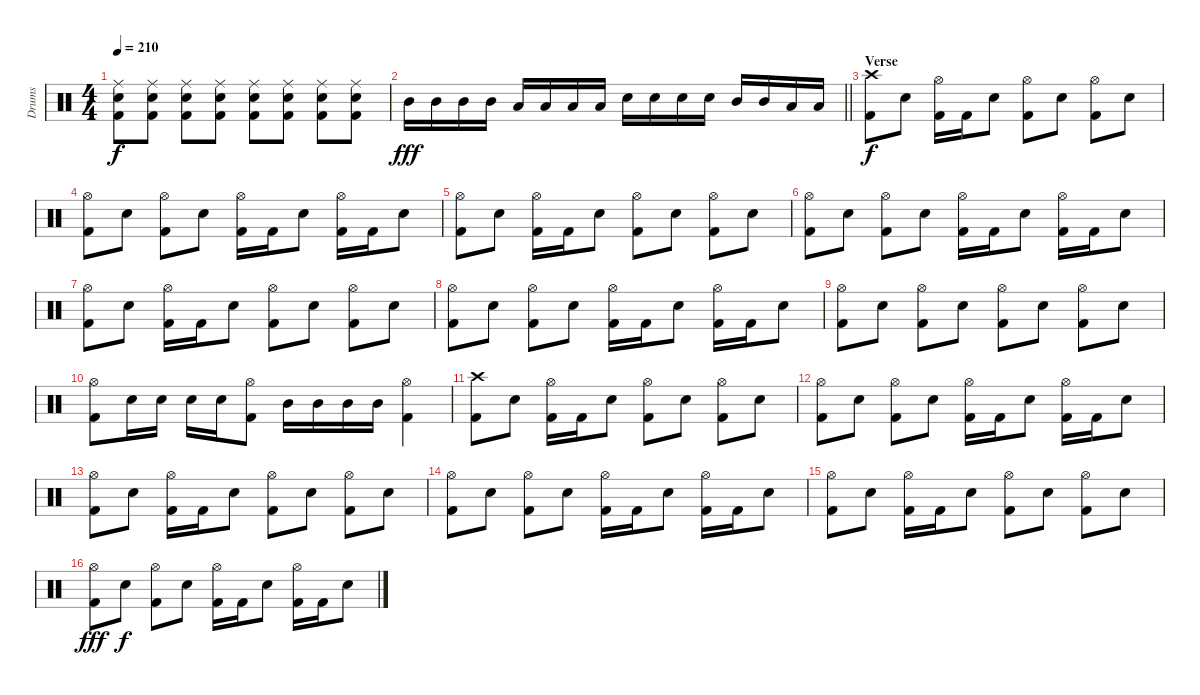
\track ("Drums" "Drums") {instrument percussion}
\staff {score}
\articulation defaults
\ts (4 4)
\tempo 210
\clef neutral
\ks c
("Ride (middle)" "Snare (hit) 2" "Kick (hit) 2").8{dy f} ("Ride (middle)" "Snare (hit) 2" "Kick (hit) 2").8 ("Ride (middle)" "Snare (hit) 2" "Kick (hit) 2").8 ("Ride (middle)" "Snare (hit) 2" "Kick (hit) 2").8 ("Ride (middle)" "Snare (hit) 2" "Kick (hit) 2").8 ("Ride (middle)" "Snare (hit) 2" "Kick (hit) 2").8 ("Ride (middle)" "Snare (hit) 2" "Kick (hit) 2").8 ("Ride (middle)" "Snare (hit) 2" "Kick (hit) 2").8 |
\barLineRight lightlight "Mid Tom (hit)".16{dy fff} "Mid Tom (hit)".16 "Mid Tom (hit)".16 "Mid Tom (hit)".16 "Low Tom (hit)".16 "Low Tom (hit)".16 "Low Tom (hit)".16 "Low Tom (hit)".16 "Snare (hit) 2".16 "Snare (hit) 2".16 "Snare (hit) 2".16 "Snare (hit) 2".16 "Mid Tom (hit)".16 "Mid Tom (hit)".16 "Low Tom (hit)".16 "Low Tom (hit)".16
|
\section ("" "Verse")
("Crash high (hit)" "Kick (hit) 2").8{dy f} "Snare (hit) 2".8 ("Hi-Hat (open)" "Kick (hit) 2").16 "Kick (hit) 2".16 "Snare (hit) 2".8 ("Hi-Hat (open)" "Kick (hit) 2").8 "Snare (hit) 2".8 ("Hi-Hat (open)" "Kick (hit) 2").8 "Snare (hit) 2".8 |
("Hi-Hat (open)" "Kick (hit) 2").8 "Snare (hit) 2".8 ("Hi-Hat (open)" "Kick (hit) 2").8 "Snare (hit) 2".8 ("Hi-Hat (open)" "Kick (hit) 2").16 "Kick (hit) 2".16 "Snare (hit) 2".8 ("Hi-Hat (open)" "Kick (hit) 2").16 "Kick (hit) 2".16 "Snare (hit) 2".8 |
("Hi-Hat (open)" "Kick (hit) 2").8 "Snare (hit) 2".8 ("Hi-Hat (open)" "Kick (hit) 2").16 "Kick (hit) 2".16 "Snare (hit) 2".8 ("Hi-Hat (open)" "Kick (hit) 2").8 "Snare (hit) 2".8 ("Hi-Hat (open)" "Kick (hit) 2").8 "Snare (hit) 2".8 |
("Hi-Hat (open)" "Kick (hit) 2").8 "Snare (hit) 2".8 ("Hi-Hat (open)" "Kick (hit) 2").8 "Snare (hit) 2".8 ("Hi-Hat (open)" "Kick (hit) 2").16 "Kick (hit) 2".16 "Snare (hit) 2".8 ("Hi-Hat (open)" "Kick (hit) 2").16 "Kick (hit) 2".16 "Snare (hit) 2".8 |
("Hi-Hat (open)" "Kick (hit) 2").8 "Snare (hit) 2".8 ("Hi-Hat (open)" "Kick (hit) 2").16 "Kick (hit) 2".16 "Snare (hit) 2".8 ("Hi-Hat (open)" "Kick (hit) 2").8 "Snare (hit) 2".8 ("Hi-Hat (open)" "Kick (hit) 2").8 "Snare (hit) 2".8 |
("Hi-Hat (open)" "Kick (hit) 2").8 "Snare (hit) 2".8 ("Hi-Hat (open)" "Kick (hit) 2").8 "Snare (hit) 2".8 ("Hi-Hat (open)" "Kick (hit) 2").16 "Kick (hit) 2".16 "Snare (hit) 2".8 ("Hi-Hat (open)" "Kick (hit) 2").16 "Kick (hit) 2".16 "Snare (hit) 2".8 |
("Hi-Hat (open)" "Kick (hit) 2").8 "Snare (hit) 2".8 ("Hi-Hat (open)" "Kick (hit) 2").8 "Snare (hit) 2".8 ("Hi-Hat (open)" "Kick (hit) 2").8 "Snare (hit) 2".8 ("Hi-Hat (open)" "Kick (hit) 2").8 "Snare (hit) 2".8 |
("Hi-Hat (open)" "Kick (hit) 2").8 "Snare (hit) 2".16 "Snare (hit) 2".16 "Snare (hit) 2".16 "Snare (hit) 2".16 ("Hi-Hat (open)" "Kick (hit) 2").8 "Mid Tom (hit)".16 "Mid Tom (hit)".16 "Mid Tom (hit)".16 "Mid Tom (hit)".16 ("Hi-Hat (open)" "Kick (hit) 2").4 |
("Crash high (hit)" "Kick (hit) 2").8 "Snare (hit) 2".8 ("Hi-Hat (open)" "Kick (hit) 2").16 "Kick (hit) 2".16 "Snare (hit) 2".8 ("Hi-Hat (open)" "Kick (hit) 2").8 "Snare (hit) 2".8 ("Hi-Hat (open)" "Kick (hit) 2").8 "Snare (hit) 2".8 |
("Hi-Hat (open)" "Kick (hit) 2").8 "Snare (hit) 2".8 ("Hi-Hat (open)" "Kick (hit) 2").8 "Snare (hit) 2".8 ("Hi-Hat (open)" "Kick (hit) 2").16 "Kick (hit) 2".16 "Snare (hit) 2".8 ("Hi-Hat (open)" "Kick (hit) 2").16 "Kick (hit) 2".16 "Snare (hit) 2".8 |
("Hi-Hat (open)" "Kick (hit) 2").8 "Snare (hit) 2".8 ("Hi-Hat (open)" "Kick (hit) 2").16 "Kick (hit) 2".16 "Snare (hit) 2".8 ("Hi-Hat (open)" "Kick (hit) 2").8 "Snare (hit) 2".8 ("Hi-Hat (open)" "Kick (hit) 2").8 "Snare (hit) 2".8 |
("Hi-Hat (open)" "Kick (hit) 2").8 "Snare (hit) 2".8 ("Hi-Hat (open)" "Kick (hit) 2").8 "Snare (hit) 2".8 ("Hi-Hat (open)" "Kick (hit) 2").16 "Kick (hit) 2".16 "Snare (hit) 2".8 ("Hi-Hat (open)" "Kick (hit) 2").16 "Kick (hit) 2".16 "Snare (hit) 2".8 |
("Hi-Hat (open)" "Kick (hit) 2").8 "Snare (hit) 2".8 ("Hi-Hat (open)" "Kick (hit) 2").16 "Kick (hit) 2".16 "Snare (hit) 2".8 ("Hi-Hat (open)" "Kick (hit) 2").8 "Snare (hit) 2".8 ("Hi-Hat (open)" "Kick (hit) 2").8 "Snare (hit) 2".8 |
("Hi-Hat (open)" "Kick (hit) 2").8{dy fff} "Snare (hit) 2".8{dy f} ("Hi-Hat (open)" "Kick (hit) 2").8 "Snare (hit) 2".8 ("Hi-Hat (open)" "Kick (hit) 2").16 "Kick (hit) 2".16 "Snare (hit) 2".8 ("Hi-Hat (open)" "Kick (hit) 2").16 "Kick (hit) 2".16 "Snare (hit) 2".8
